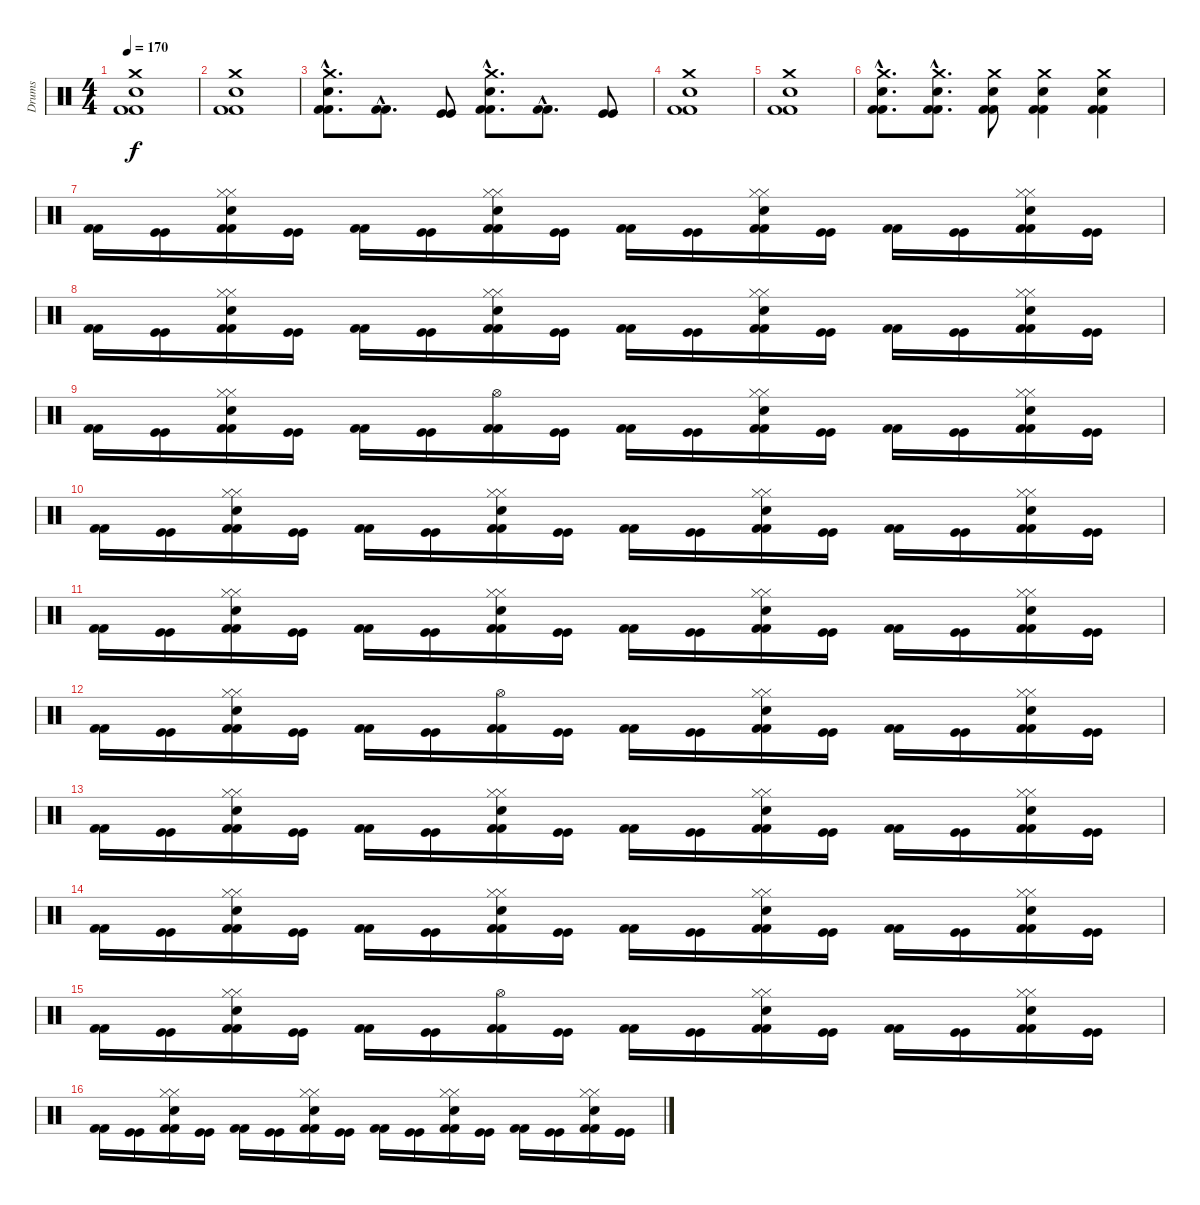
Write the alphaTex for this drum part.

\track ("Drums" "Drums") {instrument percussion}
\staff {score}
\articulation defaults
\ts (4 4)
\tempo 170
\clef neutral
\ks c
("Crash medium (hit)" "Electric Snare (hit)" "Kick (hit) 2" "Kick (hit) 2").1{dy f} |
("Crash medium (hit)" "Electric Snare (hit)" "Kick (hit) 2" "Kick (hit) 2").1 |
("Crash medium (hit)"{hac} "Electric Snare (hit)"{hac} "Kick (hit) 2"{hac} "Kick (hit) 2"{hac}).8{d} ("Kick (hit) 2"{hac} "Kick (hit) 2"{hac}).8{d} ("Kick (hit)" "Kick (hit)").8 ("Crash medium (hit)"{hac} "Electric Snare (hit)"{hac} "Kick (hit) 2"{hac} "Kick (hit) 2"{hac}).8{d} ("Kick (hit) 2"{hac} "Kick (hit) 2"{hac}).8{d} ("Kick (hit)" "Kick (hit)").8 |
("Crash medium (hit)" "Electric Snare (hit)" "Kick (hit) 2" "Kick (hit) 2").1 |
("Crash medium (hit)" "Electric Snare (hit)" "Kick (hit) 2" "Kick (hit) 2").1 |
("Crash medium (hit)"{hac} "Electric Snare (hit)"{hac} "Kick (hit) 2"{hac} "Kick (hit) 2"{hac}).8{d} ("Crash medium (hit)"{hac} "Electric Snare (hit)"{hac} "Kick (hit) 2"{hac} "Kick (hit) 2"{hac}).8{d} ("Crash medium (hit)" "Electric Snare (hit)" "Kick (hit) 2" "Kick (hit) 2").8 ("Crash medium (hit)" "Electric Snare (hit)" "Kick (hit) 2" "Kick (hit) 2").4 ("Crash medium (hit)" "Electric Snare (hit)" "Kick (hit) 2" "Kick (hit) 2").4 |
("Kick (hit) 2" "Kick (hit) 2").16 ("Kick (hit)" "Kick (hit)").16 ("Hi-Hat (closed)" "Hi-Hat (closed)" "Electric Snare (hit)" "Kick (hit) 2" "Kick (hit) 2").16 ("Kick (hit)" "Kick (hit)").16 ("Kick (hit) 2" "Kick (hit) 2").16 ("Kick (hit)" "Kick (hit)").16 ("Hi-Hat (closed)" "Hi-Hat (closed)" "Electric Snare (hit)" "Kick (hit) 2" "Kick (hit) 2").16 ("Kick (hit)" "Kick (hit)").16 ("Kick (hit) 2" "Kick (hit) 2").16 ("Kick (hit)" "Kick (hit)").16 ("Hi-Hat (closed)" "Hi-Hat (closed)" "Electric Snare (hit)" "Kick (hit) 2" "Kick (hit) 2").16 ("Kick (hit)" "Kick (hit)").16 ("Kick (hit) 2" "Kick (hit) 2").16 ("Kick (hit)" "Kick (hit)").16 ("Hi-Hat (closed)" "Hi-Hat (closed)" "Electric Snare (hit)" "Kick (hit) 2" "Kick (hit) 2").16 ("Kick (hit)" "Kick (hit)").16 |
("Kick (hit) 2" "Kick (hit) 2").16 ("Kick (hit)" "Kick (hit)").16 ("Hi-Hat (closed)" "Hi-Hat (closed)" "Electric Snare (hit)" "Kick (hit) 2" "Kick (hit) 2").16 ("Kick (hit)" "Kick (hit)").16 ("Kick (hit) 2" "Kick (hit) 2").16 ("Kick (hit)" "Kick (hit)").16 ("Hi-Hat (closed)" "Hi-Hat (closed)" "Electric Snare (hit)" "Kick (hit) 2" "Kick (hit) 2").16 ("Kick (hit)" "Kick (hit)").16 ("Kick (hit) 2" "Kick (hit) 2").16 ("Kick (hit)" "Kick (hit)").16 ("Hi-Hat (closed)" "Hi-Hat (closed)" "Electric Snare (hit)" "Kick (hit) 2" "Kick (hit) 2").16 ("Kick (hit)" "Kick (hit)").16 ("Kick (hit) 2" "Kick (hit) 2").16 ("Kick (hit)" "Kick (hit)").16 ("Hi-Hat (closed)" "Hi-Hat (closed)" "Electric Snare (hit)" "Kick (hit) 2" "Kick (hit) 2").16 ("Kick (hit)" "Kick (hit)").16 |
("Kick (hit) 2" "Kick (hit) 2").16 ("Kick (hit)" "Kick (hit)").16 ("Hi-Hat (closed)" "Hi-Hat (closed)" "Electric Snare (hit)" "Kick (hit) 2" "Kick (hit) 2").16 ("Kick (hit)" "Kick (hit)").16 ("Kick (hit) 2" "Kick (hit) 2").16 ("Kick (hit)" "Kick (hit)").16 ("Hi-Hat (open)" "Kick (hit) 2" "Kick (hit) 2").16 ("Kick (hit)" "Kick (hit)").16 ("Kick (hit) 2" "Kick (hit) 2").16 ("Kick (hit)" "Kick (hit)").16 ("Hi-Hat (closed)" "Hi-Hat (closed)" "Electric Snare (hit)" "Kick (hit) 2" "Kick (hit) 2").16 ("Kick (hit)" "Kick (hit)").16 ("Kick (hit) 2" "Kick (hit) 2").16 ("Kick (hit)" "Kick (hit)").16 ("Hi-Hat (closed)" "Hi-Hat (closed)" "Electric Snare (hit)" "Kick (hit) 2" "Kick (hit) 2").16 ("Kick (hit)" "Kick (hit)").16 |
("Kick (hit) 2" "Kick (hit) 2").16 ("Kick (hit)" "Kick (hit)").16 ("Hi-Hat (closed)" "Hi-Hat (closed)" "Electric Snare (hit)" "Kick (hit) 2" "Kick (hit) 2").16 ("Kick (hit)" "Kick (hit)").16 ("Kick (hit) 2" "Kick (hit) 2").16 ("Kick (hit)" "Kick (hit)").16 ("Hi-Hat (closed)" "Hi-Hat (closed)" "Electric Snare (hit)" "Kick (hit) 2" "Kick (hit) 2").16 ("Kick (hit)" "Kick (hit)").16 ("Kick (hit) 2" "Kick (hit) 2").16 ("Kick (hit)" "Kick (hit)").16 ("Hi-Hat (closed)" "Hi-Hat (closed)" "Electric Snare (hit)" "Kick (hit) 2" "Kick (hit) 2").16 ("Kick (hit)" "Kick (hit)").16 ("Kick (hit) 2" "Kick (hit) 2").16 ("Kick (hit)" "Kick (hit)").16 ("Hi-Hat (closed)" "Hi-Hat (closed)" "Electric Snare (hit)" "Kick (hit) 2" "Kick (hit) 2").16 ("Kick (hit)" "Kick (hit)").16 |
("Kick (hit) 2" "Kick (hit) 2").16 ("Kick (hit)" "Kick (hit)").16 ("Hi-Hat (closed)" "Hi-Hat (closed)" "Electric Snare (hit)" "Kick (hit) 2" "Kick (hit) 2").16 ("Kick (hit)" "Kick (hit)").16 ("Kick (hit) 2" "Kick (hit) 2").16 ("Kick (hit)" "Kick (hit)").16 ("Hi-Hat (closed)" "Hi-Hat (closed)" "Electric Snare (hit)" "Kick (hit) 2" "Kick (hit) 2").16 ("Kick (hit)" "Kick (hit)").16 ("Kick (hit) 2" "Kick (hit) 2").16 ("Kick (hit)" "Kick (hit)").16 ("Hi-Hat (closed)" "Hi-Hat (closed)" "Electric Snare (hit)" "Kick (hit) 2" "Kick (hit) 2").16 ("Kick (hit)" "Kick (hit)").16 ("Kick (hit) 2" "Kick (hit) 2").16 ("Kick (hit)" "Kick (hit)").16 ("Hi-Hat (closed)" "Hi-Hat (closed)" "Electric Snare (hit)" "Kick (hit) 2" "Kick (hit) 2").16 ("Kick (hit)" "Kick (hit)").16 |
("Kick (hit) 2" "Kick (hit) 2").16 ("Kick (hit)" "Kick (hit)").16 ("Hi-Hat (closed)" "Hi-Hat (closed)" "Electric Snare (hit)" "Kick (hit) 2" "Kick (hit) 2").16 ("Kick (hit)" "Kick (hit)").16 ("Kick (hit) 2" "Kick (hit) 2").16 ("Kick (hit)" "Kick (hit)").16 ("Hi-Hat (open)" "Kick (hit) 2" "Kick (hit) 2").16 ("Kick (hit)" "Kick (hit)").16 ("Kick (hit) 2" "Kick (hit) 2").16 ("Kick (hit)" "Kick (hit)").16 ("Hi-Hat (closed)" "Hi-Hat (closed)" "Electric Snare (hit)" "Kick (hit) 2" "Kick (hit) 2").16 ("Kick (hit)" "Kick (hit)").16 ("Kick (hit) 2" "Kick (hit) 2").16 ("Kick (hit)" "Kick (hit)").16 ("Hi-Hat (closed)" "Hi-Hat (closed)" "Electric Snare (hit)" "Kick (hit) 2" "Kick (hit) 2").16 ("Kick (hit)" "Kick (hit)").16 |
("Kick (hit) 2" "Kick (hit) 2").16 ("Kick (hit)" "Kick (hit)").16 ("Hi-Hat (closed)" "Hi-Hat (closed)" "Electric Snare (hit)" "Kick (hit) 2" "Kick (hit) 2").16 ("Kick (hit)" "Kick (hit)").16 ("Kick (hit) 2" "Kick (hit) 2").16 ("Kick (hit)" "Kick (hit)").16 ("Hi-Hat (closed)" "Hi-Hat (closed)" "Electric Snare (hit)" "Kick (hit) 2" "Kick (hit) 2").16 ("Kick (hit)" "Kick (hit)").16 ("Kick (hit) 2" "Kick (hit) 2").16 ("Kick (hit)" "Kick (hit)").16 ("Hi-Hat (closed)" "Hi-Hat (closed)" "Electric Snare (hit)" "Kick (hit) 2" "Kick (hit) 2").16 ("Kick (hit)" "Kick (hit)").16 ("Kick (hit) 2" "Kick (hit) 2").16 ("Kick (hit)" "Kick (hit)").16 ("Hi-Hat (closed)" "Hi-Hat (closed)" "Electric Snare (hit)" "Kick (hit) 2" "Kick (hit) 2").16 ("Kick (hit)" "Kick (hit)").16 |
("Kick (hit) 2" "Kick (hit) 2").16 ("Kick (hit)" "Kick (hit)").16 ("Hi-Hat (closed)" "Hi-Hat (closed)" "Electric Snare (hit)" "Kick (hit) 2" "Kick (hit) 2").16 ("Kick (hit)" "Kick (hit)").16 ("Kick (hit) 2" "Kick (hit) 2").16 ("Kick (hit)" "Kick (hit)").16 ("Hi-Hat (closed)" "Hi-Hat (closed)" "Electric Snare (hit)" "Kick (hit) 2" "Kick (hit) 2").16 ("Kick (hit)" "Kick (hit)").16 ("Kick (hit) 2" "Kick (hit) 2").16 ("Kick (hit)" "Kick (hit)").16 ("Hi-Hat (closed)" "Hi-Hat (closed)" "Electric Snare (hit)" "Kick (hit) 2" "Kick (hit) 2").16 ("Kick (hit)" "Kick (hit)").16 ("Kick (hit) 2" "Kick (hit) 2").16 ("Kick (hit)" "Kick (hit)").16 ("Hi-Hat (closed)" "Hi-Hat (closed)" "Electric Snare (hit)" "Kick (hit) 2" "Kick (hit) 2").16 ("Kick (hit)" "Kick (hit)").16 |
("Kick (hit) 2" "Kick (hit) 2").16 ("Kick (hit)" "Kick (hit)").16 ("Hi-Hat (closed)" "Hi-Hat (closed)" "Electric Snare (hit)" "Kick (hit) 2" "Kick (hit) 2").16 ("Kick (hit)" "Kick (hit)").16 ("Kick (hit) 2" "Kick (hit) 2").16 ("Kick (hit)" "Kick (hit)").16 ("Hi-Hat (open)" "Kick (hit) 2" "Kick (hit) 2").16 ("Kick (hit)" "Kick (hit)").16 ("Kick (hit) 2" "Kick (hit) 2").16 ("Kick (hit)" "Kick (hit)").16 ("Hi-Hat (closed)" "Hi-Hat (closed)" "Electric Snare (hit)" "Kick (hit) 2" "Kick (hit) 2").16 ("Kick (hit)" "Kick (hit)").16 ("Kick (hit) 2" "Kick (hit) 2").16 ("Kick (hit)" "Kick (hit)").16 ("Hi-Hat (closed)" "Hi-Hat (closed)" "Electric Snare (hit)" "Kick (hit) 2" "Kick (hit) 2").16 ("Kick (hit)" "Kick (hit)").16 |
("Kick (hit) 2" "Kick (hit) 2").16 ("Kick (hit)" "Kick (hit)").16 ("Hi-Hat (closed)" "Hi-Hat (closed)" "Electric Snare (hit)" "Kick (hit) 2" "Kick (hit) 2").16 ("Kick (hit)" "Kick (hit)").16 ("Kick (hit) 2" "Kick (hit) 2").16 ("Kick (hit)" "Kick (hit)").16 ("Hi-Hat (closed)" "Hi-Hat (closed)" "Electric Snare (hit)" "Kick (hit) 2" "Kick (hit) 2").16 ("Kick (hit)" "Kick (hit)").16 ("Kick (hit) 2" "Kick (hit) 2").16 ("Kick (hit)" "Kick (hit)").16 ("Hi-Hat (closed)" "Hi-Hat (closed)" "Electric Snare (hit)" "Kick (hit) 2" "Kick (hit) 2").16 ("Kick (hit)" "Kick (hit)").16 ("Kick (hit) 2" "Kick (hit) 2").16 ("Kick (hit)" "Kick (hit)").16 ("Hi-Hat (closed)" "Hi-Hat (closed)" "Electric Snare (hit)" "Kick (hit) 2" "Kick (hit) 2").16 ("Kick (hit)" "Kick (hit)").16
